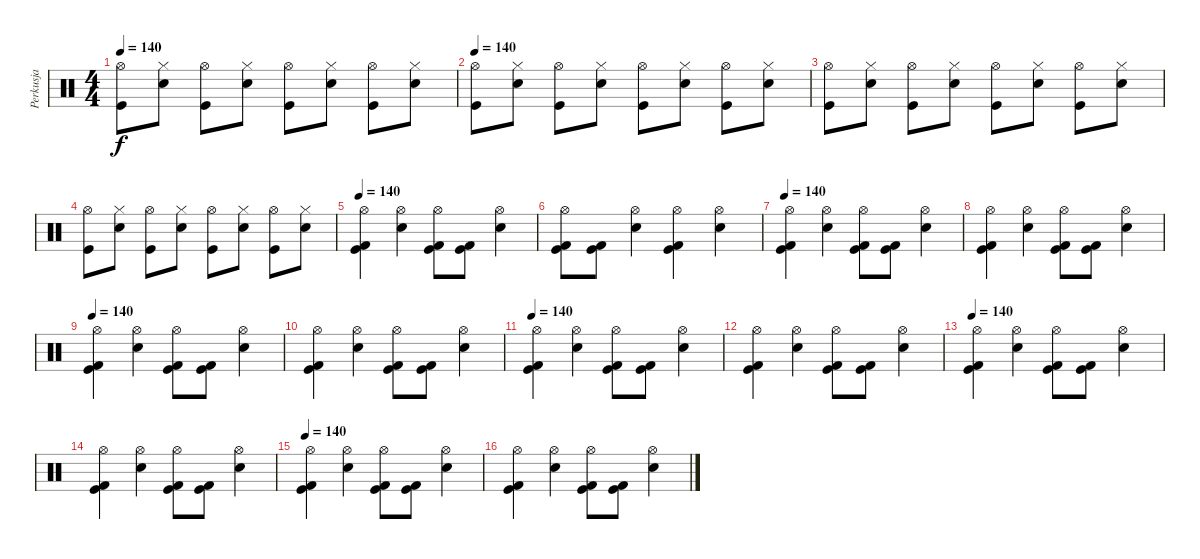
\track ("Perkusja" "Perkusja") {instrument percussion}
\staff {score}
\articulation defaults
\ts (4 4)
\tempo 140
\clef neutral
\ks c
("Hi-Hat (open)" "Kick (hit)").8{dy f} ("Hi-Hat (closed)" "Snare (hit) 2").8 ("Hi-Hat (open)" "Kick (hit)").8 ("Hi-Hat (closed)" "Snare (hit) 2").8 ("Hi-Hat (open)" "Kick (hit)").8 ("Hi-Hat (closed)" "Snare (hit) 2").8 ("Hi-Hat (open)" "Kick (hit)").8 ("Hi-Hat (closed)" "Snare (hit) 2").8 |
\tempo 140
("Hi-Hat (open)" "Kick (hit)").8 ("Hi-Hat (closed)" "Snare (hit) 2").8 ("Hi-Hat (open)" "Kick (hit)").8 ("Hi-Hat (closed)" "Snare (hit) 2").8 ("Hi-Hat (open)" "Kick (hit)").8 ("Hi-Hat (closed)" "Snare (hit) 2").8 ("Hi-Hat (open)" "Kick (hit)").8 ("Hi-Hat (closed)" "Snare (hit) 2").8 |
("Hi-Hat (open)" "Kick (hit)").8 ("Hi-Hat (closed)" "Snare (hit) 2").8 ("Hi-Hat (open)" "Kick (hit)").8 ("Hi-Hat (closed)" "Snare (hit) 2").8 ("Hi-Hat (open)" "Kick (hit)").8 ("Hi-Hat (closed)" "Snare (hit) 2").8 ("Hi-Hat (open)" "Kick (hit)").8 ("Hi-Hat (closed)" "Snare (hit) 2").8 |
("Hi-Hat (open)" "Kick (hit)").8 ("Hi-Hat (closed)" "Snare (hit) 2").8 ("Hi-Hat (open)" "Kick (hit)").8 ("Hi-Hat (closed)" "Snare (hit) 2").8 ("Hi-Hat (open)" "Kick (hit)").8 ("Hi-Hat (closed)" "Snare (hit) 2").8 ("Hi-Hat (open)" "Kick (hit)").8 ("Hi-Hat (closed)" "Snare (hit) 2").8 |
\tempo 140
("Hi-Hat (open)" "Kick (hit)" "Kick (hit) 2").4 ("Hi-Hat (open)" "Snare (hit) 2").4 ("Hi-Hat (open)" "Kick (hit)" "Kick (hit) 2").8 ("Kick (hit)" "Kick (hit) 2").8 ("Hi-Hat (open)" "Snare (hit) 2").4 |
("Hi-Hat (open)" "Kick (hit)" "Kick (hit) 2").8 ("Kick (hit)" "Kick (hit) 2").8 ("Hi-Hat (open)" "Snare (hit) 2").4 ("Hi-Hat (open)" "Kick (hit) 2" "Kick (hit)").4 ("Hi-Hat (open)" "Snare (hit) 2").4 |
\tempo 140
("Hi-Hat (open)" "Kick (hit)" "Kick (hit) 2").4 ("Hi-Hat (open)" "Snare (hit) 2").4 ("Hi-Hat (open)" "Kick (hit)" "Kick (hit) 2").8 ("Kick (hit)" "Kick (hit) 2").8 ("Hi-Hat (open)" "Snare (hit) 2").4 |
("Hi-Hat (open)" "Kick (hit)" "Kick (hit) 2").4 ("Hi-Hat (open)" "Snare (hit) 2").4 ("Hi-Hat (open)" "Kick (hit)" "Kick (hit) 2").8 ("Kick (hit)" "Kick (hit) 2").8 ("Hi-Hat (open)" "Snare (hit) 2").4 |
\tempo 140
("Hi-Hat (open)" "Kick (hit)" "Kick (hit) 2").4 ("Hi-Hat (open)" "Snare (hit) 2").4 ("Hi-Hat (open)" "Kick (hit)" "Kick (hit) 2").8 ("Kick (hit)" "Kick (hit) 2").8 ("Hi-Hat (open)" "Snare (hit) 2").4 |
("Hi-Hat (open)" "Kick (hit)" "Kick (hit) 2").4 ("Hi-Hat (open)" "Snare (hit) 2").4 ("Hi-Hat (open)" "Kick (hit)" "Kick (hit) 2").8 ("Kick (hit)" "Kick (hit) 2").8 ("Hi-Hat (open)" "Snare (hit) 2").4 |
\tempo 140
("Hi-Hat (open)" "Kick (hit)" "Kick (hit) 2").4 ("Hi-Hat (open)" "Snare (hit) 2").4 ("Hi-Hat (open)" "Kick (hit)" "Kick (hit) 2").8 ("Kick (hit)" "Kick (hit) 2").8 ("Hi-Hat (open)" "Snare (hit) 2").4 |
("Hi-Hat (open)" "Kick (hit)" "Kick (hit) 2").4 ("Hi-Hat (open)" "Snare (hit) 2").4 ("Hi-Hat (open)" "Kick (hit)" "Kick (hit) 2").8 ("Kick (hit)" "Kick (hit) 2").8 ("Hi-Hat (open)" "Snare (hit) 2").4 |
\tempo 140
("Hi-Hat (open)" "Kick (hit)" "Kick (hit) 2").4 ("Hi-Hat (open)" "Snare (hit) 2").4 ("Hi-Hat (open)" "Kick (hit)" "Kick (hit) 2").8 ("Kick (hit)" "Kick (hit) 2").8 ("Hi-Hat (open)" "Snare (hit) 2").4 |
("Hi-Hat (open)" "Kick (hit)" "Kick (hit) 2").4 ("Hi-Hat (open)" "Snare (hit) 2").4 ("Hi-Hat (open)" "Kick (hit)" "Kick (hit) 2").8 ("Kick (hit)" "Kick (hit) 2").8 ("Hi-Hat (open)" "Snare (hit) 2").4 |
\tempo 140
("Hi-Hat (open)" "Kick (hit)" "Kick (hit) 2").4 ("Hi-Hat (open)" "Snare (hit) 2").4 ("Hi-Hat (open)" "Kick (hit)" "Kick (hit) 2").8 ("Kick (hit)" "Kick (hit) 2").8 ("Hi-Hat (open)" "Snare (hit) 2").4 |
("Hi-Hat (open)" "Kick (hit)" "Kick (hit) 2").4 ("Hi-Hat (open)" "Snare (hit) 2").4 ("Hi-Hat (open)" "Kick (hit)" "Kick (hit) 2").8 ("Kick (hit)" "Kick (hit) 2").8 ("Hi-Hat (open)" "Snare (hit) 2").4
